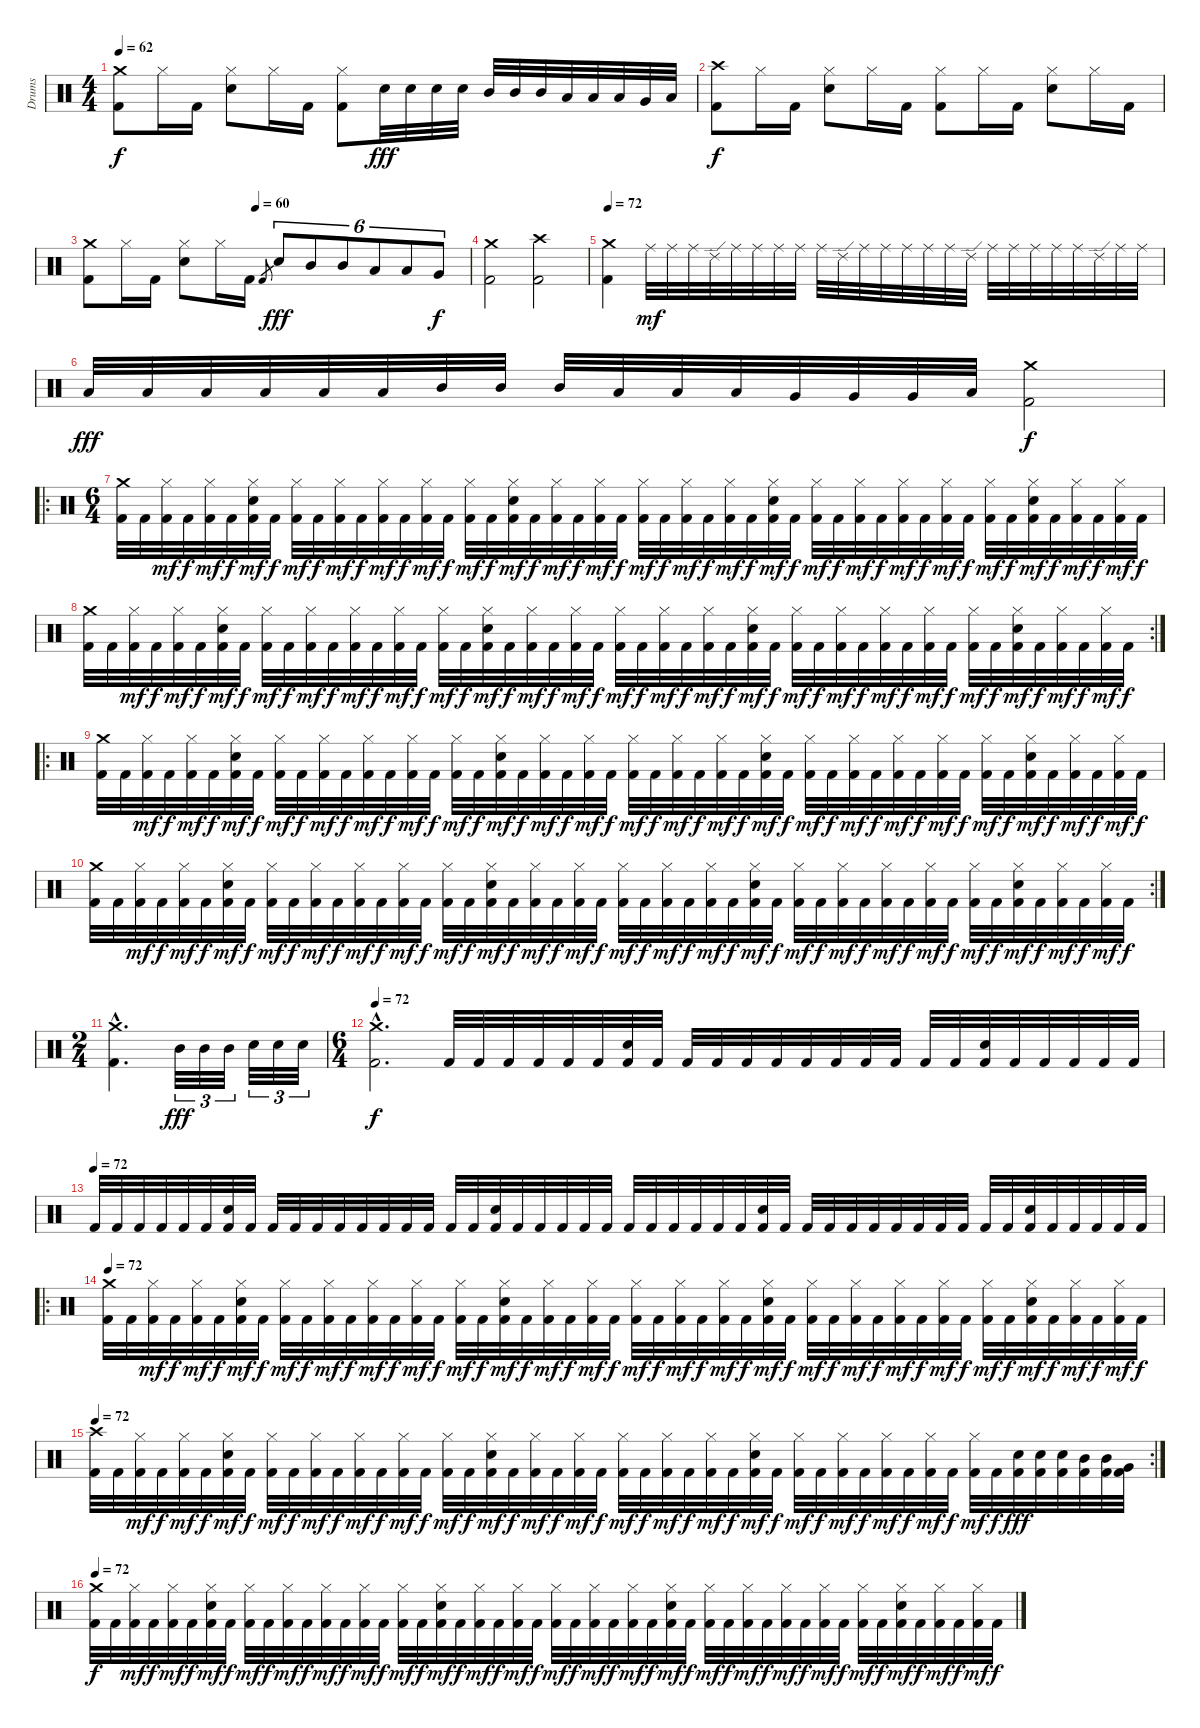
\track ("Drums" "Drums") {instrument percussion}
\staff {score}
\articulation defaults
\ts (4 4)
\tempo 62
\clef neutral
\ks c
("Crash medium (hit)" "Kick (hit) 2").8{dy f} "Hi-Hat (closed)".16 "Kick (hit) 2".16 ("Hi-Hat (closed)" "Electric Snare (hit)").8 "Hi-Hat (closed)".16 "Kick (hit) 2".16 ("Hi-Hat (closed)" "Kick (hit) 2").8 "Electric Snare (hit)".32{dy fff} "Electric Snare (hit)".32 "Electric Snare (hit)".32 "Electric Snare (hit)".32 "Mid Tom (hit)".32 "Mid Tom (hit)".32 "Mid Tom (hit)".32 "Low Tom (hit)".32 "Low Tom (hit)".32 "Low Tom (hit)".32 "Very Low Tom (hit)".32 "Low Floor Tom (hit)".32 |
("Crash high (hit)" "Kick (hit) 2").8{dy f} "Hi-Hat (closed)".16 "Kick (hit) 2".16 ("Hi-Hat (closed)" "Electric Snare (hit)").8 "Hi-Hat (closed)".16 "Kick (hit) 2".16 ("Hi-Hat (closed)" "Kick (hit) 2").8 "Hi-Hat (closed)".16 "Kick (hit) 2".16 ("Hi-Hat (closed)" "Electric Snare (hit)").8 "Hi-Hat (closed)".16 "Kick (hit) 2".16 |
\tempo (60 0.4375)
("Crash medium (hit)" "Kick (hit) 2").8 "Hi-Hat (closed)".16 "Kick (hit) 2".16 ("Hi-Hat (closed)" "Electric Snare (hit)").8 "Hi-Hat (closed)".16 "Kick (hit) 2".16 "Kick (hit) 2".8{gr} "Electric Snare (hit)".8{tu (6 4) dy fff} "Mid Tom (hit)".8{tu (6 4)} "Mid Tom (hit)".8{tu (6 4)} "Low Tom (hit)".8{tu (6 4)} "Low Tom (hit)".8{tu (6 4)} "Very Low Tom (hit)".8{tu (6 4) dy f} |
("Crash medium (hit)" "Kick (hit) 2").2 ("Crash high (hit)" "Kick (hit) 2").2 |
\tempo 72
("Crash medium (hit)" "Kick (hit) 2").4 "Ride (middle)".32{dy mf} "Ride (middle)".32 "Ride (middle)".32 "Ride (edge) 2".32 "Ride (middle)".32 "Ride (middle)".32 "Ride (middle)".32 "Ride (middle)".32 "Ride (middle)".32 "Ride (edge) 2".32 "Ride (middle)".32 "Ride (middle)".32 "Ride (middle)".32 "Ride (middle)".32 "Ride (middle)".32 "Ride (edge) 2".32 "Ride (middle)".32 "Ride (middle)".32 "Ride (middle)".32 "Ride (middle)".32 "Ride (middle)".32 "Ride (edge) 2".32 "Ride (middle)".32 "Ride (middle)".32 |
"Low Tom (hit)".32{dy fff} "Low Tom (hit)".32 "Low Floor Tom (hit)".32 "Low Tom (hit)".32 "Low Tom (hit)".32 "Low Floor Tom (hit)".32 "Mid Tom (hit)".32 "Mid Tom (hit)".32 "Mid Tom (hit)".32 "Low Tom (hit)".32 "Low Tom (hit)".32 "Low Tom (hit)".32 "Very Low Tom (hit)".32 "Very Low Tom (hit)".32 "Very Low Tom (hit)".32 "Low Floor Tom (hit)".32 ("Crash medium (hit)" "Kick (hit) 2").2{dy f} |
\ro
\ts (6 4)
("Crash medium (hit)" "Kick (hit) 2").32 "Kick (hit) 2".32 ("Hi-Hat (closed)" "Kick (hit) 2").32{dy mf} "Kick (hit) 2".32{dy f} ("Hi-Hat (closed)" "Kick (hit) 2").32{dy mf} "Kick (hit) 2".32{dy f} ("Hi-Hat (closed)" "Electric Snare (hit)" "Kick (hit) 2").32{dy mf} "Kick (hit) 2".32{dy f} ("Hi-Hat (closed)" "Kick (hit) 2").32{dy mf} "Kick (hit) 2".32{dy f} ("Hi-Hat (closed)" "Kick (hit) 2").32{dy mf} "Kick (hit) 2".32{dy f} ("Hi-Hat (closed)" "Kick (hit) 2").32{dy mf} "Kick (hit) 2".32{dy f} ("Hi-Hat (closed)" "Kick (hit) 2").32{dy mf} "Kick (hit) 2".32{dy f} ("Hi-Hat (closed)" "Kick (hit) 2").32{dy mf} "Kick (hit) 2".32{dy f} ("Hi-Hat (closed)" "Electric Snare (hit)" "Kick (hit) 2").32{dy mf} "Kick (hit) 2".32{dy f} ("Hi-Hat (closed)" "Kick (hit) 2").32{dy mf} "Kick (hit) 2".32{dy f} ("Hi-Hat (closed)" "Kick (hit) 2").32{dy mf} "Kick (hit) 2".32{dy f} ("Hi-Hat (closed)" "Kick (hit) 2").32{dy mf} "Kick (hit) 2".32{dy f} ("Hi-Hat (closed)" "Kick (hit) 2").32{dy mf} "Kick (hit) 2".32{dy f} ("Hi-Hat (closed)" "Kick (hit) 2").32{dy mf} "Kick (hit) 2".32{dy f} ("Hi-Hat (closed)" "Electric Snare (hit)" "Kick (hit) 2").32{dy mf} "Kick (hit) 2".32{dy f} ("Hi-Hat (closed)" "Kick (hit) 2").32{dy mf} "Kick (hit) 2".32{dy f} ("Hi-Hat (closed)" "Kick (hit) 2").32{dy mf} "Kick (hit) 2".32{dy f} ("Hi-Hat (closed)" "Kick (hit) 2").32{dy mf} "Kick (hit) 2".32{dy f} ("Hi-Hat (closed)" "Kick (hit) 2").32{dy mf} "Kick (hit) 2".32{dy f} ("Hi-Hat (closed)" "Kick (hit) 2").32{dy mf} "Kick (hit) 2".32{dy f} ("Hi-Hat (closed)" "Electric Snare (hit)" "Kick (hit) 2").32{dy mf} "Kick (hit) 2".32{dy f} ("Hi-Hat (closed)" "Kick (hit) 2").32{dy mf} "Kick (hit) 2".32{dy f} ("Hi-Hat (closed)" "Kick (hit) 2").32{dy mf} "Kick (hit) 2".32{dy f} |
\rc 2
("Crash medium (hit)" "Kick (hit) 2").32 "Kick (hit) 2".32 ("Hi-Hat (closed)" "Kick (hit) 2").32{dy mf} "Kick (hit) 2".32{dy f} ("Hi-Hat (closed)" "Kick (hit) 2").32{dy mf} "Kick (hit) 2".32{dy f} ("Hi-Hat (closed)" "Electric Snare (hit)" "Kick (hit) 2").32{dy mf} "Kick (hit) 2".32{dy f} ("Hi-Hat (closed)" "Kick (hit) 2").32{dy mf} "Kick (hit) 2".32{dy f} ("Hi-Hat (closed)" "Kick (hit) 2").32{dy mf} "Kick (hit) 2".32{dy f} ("Hi-Hat (closed)" "Kick (hit) 2").32{dy mf} "Kick (hit) 2".32{dy f} ("Hi-Hat (closed)" "Kick (hit) 2").32{dy mf} "Kick (hit) 2".32{dy f} ("Hi-Hat (closed)" "Kick (hit) 2").32{dy mf} "Kick (hit) 2".32{dy f} ("Hi-Hat (closed)" "Electric Snare (hit)" "Kick (hit) 2").32{dy mf} "Kick (hit) 2".32{dy f} ("Hi-Hat (closed)" "Kick (hit) 2").32{dy mf} "Kick (hit) 2".32{dy f} ("Hi-Hat (closed)" "Kick (hit) 2").32{dy mf} "Kick (hit) 2".32{dy f} ("Hi-Hat (closed)" "Kick (hit) 2").32{dy mf} "Kick (hit) 2".32{dy f} ("Hi-Hat (closed)" "Kick (hit) 2").32{dy mf} "Kick (hit) 2".32{dy f} ("Hi-Hat (closed)" "Kick (hit) 2").32{dy mf} "Kick (hit) 2".32{dy f} ("Hi-Hat (closed)" "Electric Snare (hit)" "Kick (hit) 2").32{dy mf} "Kick (hit) 2".32{dy f} ("Hi-Hat (closed)" "Kick (hit) 2").32{dy mf} "Kick (hit) 2".32{dy f} ("Hi-Hat (closed)" "Kick (hit) 2").32{dy mf} "Kick (hit) 2".32{dy f} ("Hi-Hat (closed)" "Kick (hit) 2").32{dy mf} "Kick (hit) 2".32{dy f} ("Hi-Hat (closed)" "Kick (hit) 2").32{dy mf} "Kick (hit) 2".32{dy f} ("Hi-Hat (closed)" "Kick (hit) 2").32{dy mf} "Kick (hit) 2".32{dy f} ("Hi-Hat (closed)" "Electric Snare (hit)" "Kick (hit) 2").32{dy mf} "Kick (hit) 2".32{dy f} ("Hi-Hat (closed)" "Kick (hit) 2").32{dy mf} "Kick (hit) 2".32{dy f} ("Hi-Hat (closed)" "Kick (hit) 2").32{dy mf} "Kick (hit) 2".32{dy f} |
\ro
("Crash medium (hit)" "Kick (hit) 2").32 "Kick (hit) 2".32 ("Hi-Hat (closed)" "Kick (hit) 2").32{dy mf} "Kick (hit) 2".32{dy f} ("Hi-Hat (closed)" "Kick (hit) 2").32{dy mf} "Kick (hit) 2".32{dy f} ("Hi-Hat (closed)" "Electric Snare (hit)" "Kick (hit) 2").32{dy mf} "Kick (hit) 2".32{dy f} ("Hi-Hat (closed)" "Kick (hit) 2").32{dy mf} "Kick (hit) 2".32{dy f} ("Hi-Hat (closed)" "Kick (hit) 2").32{dy mf} "Kick (hit) 2".32{dy f} ("Hi-Hat (closed)" "Kick (hit) 2").32{dy mf} "Kick (hit) 2".32{dy f} ("Hi-Hat (closed)" "Kick (hit) 2").32{dy mf} "Kick (hit) 2".32{dy f} ("Hi-Hat (closed)" "Kick (hit) 2").32{dy mf} "Kick (hit) 2".32{dy f} ("Hi-Hat (closed)" "Electric Snare (hit)" "Kick (hit) 2").32{dy mf} "Kick (hit) 2".32{dy f} ("Hi-Hat (closed)" "Kick (hit) 2").32{dy mf} "Kick (hit) 2".32{dy f} ("Hi-Hat (closed)" "Kick (hit) 2").32{dy mf} "Kick (hit) 2".32{dy f} ("Hi-Hat (closed)" "Kick (hit) 2").32{dy mf} "Kick (hit) 2".32{dy f} ("Hi-Hat (closed)" "Kick (hit) 2").32{dy mf} "Kick (hit) 2".32{dy f} ("Hi-Hat (closed)" "Kick (hit) 2").32{dy mf} "Kick (hit) 2".32{dy f} ("Hi-Hat (closed)" "Electric Snare (hit)" "Kick (hit) 2").32{dy mf} "Kick (hit) 2".32{dy f} ("Hi-Hat (closed)" "Kick (hit) 2").32{dy mf} "Kick (hit) 2".32{dy f} ("Hi-Hat (closed)" "Kick (hit) 2").32{dy mf} "Kick (hit) 2".32{dy f} ("Hi-Hat (closed)" "Kick (hit) 2").32{dy mf} "Kick (hit) 2".32{dy f} ("Hi-Hat (closed)" "Kick (hit) 2").32{dy mf} "Kick (hit) 2".32{dy f} ("Hi-Hat (closed)" "Kick (hit) 2").32{dy mf} "Kick (hit) 2".32{dy f} ("Hi-Hat (closed)" "Electric Snare (hit)" "Kick (hit) 2").32{dy mf} "Kick (hit) 2".32{dy f} ("Hi-Hat (closed)" "Kick (hit) 2").32{dy mf} "Kick (hit) 2".32{dy f} ("Hi-Hat (closed)" "Kick (hit) 2").32{dy mf} "Kick (hit) 2".32{dy f} |
\rc 2
("Crash medium (hit)" "Kick (hit) 2").32 "Kick (hit) 2".32 ("Hi-Hat (closed)" "Kick (hit) 2").32{dy mf} "Kick (hit) 2".32{dy f} ("Hi-Hat (closed)" "Kick (hit) 2").32{dy mf} "Kick (hit) 2".32{dy f} ("Hi-Hat (closed)" "Electric Snare (hit)" "Kick (hit) 2").32{dy mf} "Kick (hit) 2".32{dy f} ("Hi-Hat (closed)" "Kick (hit) 2").32{dy mf} "Kick (hit) 2".32{dy f} ("Hi-Hat (closed)" "Kick (hit) 2").32{dy mf} "Kick (hit) 2".32{dy f} ("Hi-Hat (closed)" "Kick (hit) 2").32{dy mf} "Kick (hit) 2".32{dy f} ("Hi-Hat (closed)" "Kick (hit) 2").32{dy mf} "Kick (hit) 2".32{dy f} ("Hi-Hat (closed)" "Kick (hit) 2").32{dy mf} "Kick (hit) 2".32{dy f} ("Hi-Hat (closed)" "Electric Snare (hit)" "Kick (hit) 2").32{dy mf} "Kick (hit) 2".32{dy f} ("Hi-Hat (closed)" "Kick (hit) 2").32{dy mf} "Kick (hit) 2".32{dy f} ("Hi-Hat (closed)" "Kick (hit) 2").32{dy mf} "Kick (hit) 2".32{dy f} ("Hi-Hat (closed)" "Kick (hit) 2").32{dy mf} "Kick (hit) 2".32{dy f} ("Hi-Hat (closed)" "Kick (hit) 2").32{dy mf} "Kick (hit) 2".32{dy f} ("Hi-Hat (closed)" "Kick (hit) 2").32{dy mf} "Kick (hit) 2".32{dy f} ("Hi-Hat (closed)" "Electric Snare (hit)" "Kick (hit) 2").32{dy mf} "Kick (hit) 2".32{dy f} ("Hi-Hat (closed)" "Kick (hit) 2").32{dy mf} "Kick (hit) 2".32{dy f} ("Hi-Hat (closed)" "Kick (hit) 2").32{dy mf} "Kick (hit) 2".32{dy f} ("Hi-Hat (closed)" "Kick (hit) 2").32{dy mf} "Kick (hit) 2".32{dy f} ("Hi-Hat (closed)" "Kick (hit) 2").32{dy mf} "Kick (hit) 2".32{dy f} ("Hi-Hat (closed)" "Kick (hit) 2").32{dy mf} "Kick (hit) 2".32{dy f} ("Hi-Hat (closed)" "Electric Snare (hit)" "Kick (hit) 2").32{dy mf} "Kick (hit) 2".32{dy f} ("Hi-Hat (closed)" "Kick (hit) 2").32{dy mf} "Kick (hit) 2".32{dy f} ("Hi-Hat (closed)" "Kick (hit) 2").32{dy mf} "Kick (hit) 2".32{dy f} |
\ts (2 4)
("Crash medium (hit)"{hac} "Kick (hit) 2"{hac}).4{d} "Mid Tom (hit)".32{tu (3 2) dy fff} "Mid Tom (hit)".32{tu (3 2)} "Mid Tom (hit)".32{tu (3 2)} "Electric Snare (hit)".32{tu (3 2)} "Electric Snare (hit)".32{tu (3 2)} "Electric Snare (hit)".32{tu (3 2)} |
\ts (6 4)
\tempo 72
("Crash medium (hit)"{hac} "Kick (hit) 2"{hac}).2{d dy f} "Kick (hit) 2".32 "Kick (hit) 2".32 "Kick (hit) 2".32 "Kick (hit) 2".32 "Kick (hit) 2".32 "Kick (hit) 2".32 ("Electric Snare (hit)" "Kick (hit) 2").32 "Kick (hit) 2".32 "Kick (hit) 2".32 "Kick (hit) 2".32 "Kick (hit) 2".32 "Kick (hit) 2".32 "Kick (hit) 2".32 "Kick (hit) 2".32 "Kick (hit) 2".32 "Kick (hit) 2".32 "Kick (hit) 2".32 "Kick (hit) 2".32 ("Electric Snare (hit)" "Kick (hit) 2").32 "Kick (hit) 2".32 "Kick (hit) 2".32 "Kick (hit) 2".32 "Kick (hit) 2".32 "Kick (hit) 2".32 |
\tempo (72)
"Kick (hit) 2".32 "Kick (hit) 2".32 "Kick (hit) 2".32 "Kick (hit) 2".32 "Kick (hit) 2".32 "Kick (hit) 2".32 ("Electric Snare (hit)" "Kick (hit) 2").32 "Kick (hit) 2".32 "Kick (hit) 2".32 "Kick (hit) 2".32 "Kick (hit) 2".32 "Kick (hit) 2".32 "Kick (hit) 2".32 "Kick (hit) 2".32 "Kick (hit) 2".32 "Kick (hit) 2".32 "Kick (hit) 2".32 "Kick (hit) 2".32 ("Electric Snare (hit)" "Kick (hit) 2").32 "Kick (hit) 2".32 "Kick (hit) 2".32 "Kick (hit) 2".32 "Kick (hit) 2".32 "Kick (hit) 2".32 "Kick (hit) 2".32 "Kick (hit) 2".32 "Kick (hit) 2".32 "Kick (hit) 2".32 "Kick (hit) 2".32 "Kick (hit) 2".32 ("Electric Snare (hit)" "Kick (hit) 2").32 "Kick (hit) 2".32 "Kick (hit) 2".32 "Kick (hit) 2".32 "Kick (hit) 2".32 "Kick (hit) 2".32 "Kick (hit) 2".32 "Kick (hit) 2".32 "Kick (hit) 2".32 "Kick (hit) 2".32 "Kick (hit) 2".32 "Kick (hit) 2".32 ("Electric Snare (hit)" "Kick (hit) 2").32 "Kick (hit) 2".32 "Kick (hit) 2".32 "Kick (hit) 2".32 "Kick (hit) 2".32 "Kick (hit) 2".32 |
\ro
\tempo 72
("Crash medium (hit)" "Kick (hit) 2").32 "Kick (hit) 2".32 ("Hi-Hat (closed)" "Kick (hit) 2").32{dy mf} "Kick (hit) 2".32{dy f} ("Hi-Hat (closed)" "Kick (hit) 2").32{dy mf} "Kick (hit) 2".32{dy f} ("Hi-Hat (closed)" "Electric Snare (hit)" "Kick (hit) 2").32{dy mf} "Kick (hit) 2".32{dy f} ("Hi-Hat (closed)" "Kick (hit) 2").32{dy mf} "Kick (hit) 2".32{dy f} ("Hi-Hat (closed)" "Kick (hit) 2").32{dy mf} "Kick (hit) 2".32{dy f} ("Hi-Hat (closed)" "Kick (hit) 2").32{dy mf} "Kick (hit) 2".32{dy f} ("Hi-Hat (closed)" "Kick (hit) 2").32{dy mf} "Kick (hit) 2".32{dy f} ("Hi-Hat (closed)" "Kick (hit) 2").32{dy mf} "Kick (hit) 2".32{dy f} ("Hi-Hat (closed)" "Electric Snare (hit)" "Kick (hit) 2").32{dy mf} "Kick (hit) 2".32{dy f} ("Hi-Hat (closed)" "Kick (hit) 2").32{dy mf} "Kick (hit) 2".32{dy f} ("Hi-Hat (closed)" "Kick (hit) 2").32{dy mf} "Kick (hit) 2".32{dy f} ("Hi-Hat (closed)" "Kick (hit) 2").32{dy mf} "Kick (hit) 2".32{dy f} ("Hi-Hat (closed)" "Kick (hit) 2").32{dy mf} "Kick (hit) 2".32{dy f} ("Hi-Hat (closed)" "Kick (hit) 2").32{dy mf} "Kick (hit) 2".32{dy f} ("Hi-Hat (closed)" "Electric Snare (hit)" "Kick (hit) 2").32{dy mf} "Kick (hit) 2".32{dy f} ("Hi-Hat (closed)" "Kick (hit) 2").32{dy mf} "Kick (hit) 2".32{dy f} ("Hi-Hat (closed)" "Kick (hit) 2").32{dy mf} "Kick (hit) 2".32{dy f} ("Hi-Hat (closed)" "Kick (hit) 2").32{dy mf} "Kick (hit) 2".32{dy f} ("Hi-Hat (closed)" "Kick (hit) 2").32{dy mf} "Kick (hit) 2".32{dy f} ("Hi-Hat (closed)" "Kick (hit) 2").32{dy mf} "Kick (hit) 2".32{dy f} ("Hi-Hat (closed)" "Electric Snare (hit)" "Kick (hit) 2").32{dy mf} "Kick (hit) 2".32{dy f} ("Hi-Hat (closed)" "Kick (hit) 2").32{dy mf} "Kick (hit) 2".32{dy f} ("Hi-Hat (closed)" "Kick (hit) 2").32{dy mf} "Kick (hit) 2".32{dy f} |
\rc 2
\tempo 72
("Crash high (hit)" "Kick (hit) 2").32 "Kick (hit) 2".32 ("Hi-Hat (closed)" "Kick (hit) 2").32{dy mf} "Kick (hit) 2".32{dy f} ("Hi-Hat (closed)" "Kick (hit) 2").32{dy mf} "Kick (hit) 2".32{dy f} ("Hi-Hat (closed)" "Electric Snare (hit)" "Kick (hit) 2").32{dy mf} "Kick (hit) 2".32{dy f} ("Hi-Hat (closed)" "Kick (hit) 2").32{dy mf} "Kick (hit) 2".32{dy f} ("Hi-Hat (closed)" "Kick (hit) 2").32{dy mf} "Kick (hit) 2".32{dy f} ("Hi-Hat (closed)" "Kick (hit) 2").32{dy mf} "Kick (hit) 2".32{dy f} ("Hi-Hat (closed)" "Kick (hit) 2").32{dy mf} "Kick (hit) 2".32{dy f} ("Hi-Hat (closed)" "Kick (hit) 2").32{dy mf} "Kick (hit) 2".32{dy f} ("Hi-Hat (closed)" "Electric Snare (hit)" "Kick (hit) 2").32{dy mf} "Kick (hit) 2".32{dy f} ("Hi-Hat (closed)" "Kick (hit) 2").32{dy mf} "Kick (hit) 2".32{dy f} ("Hi-Hat (closed)" "Kick (hit) 2").32{dy mf} "Kick (hit) 2".32{dy f} ("Hi-Hat (closed)" "Kick (hit) 2").32{dy mf} "Kick (hit) 2".32{dy f} ("Hi-Hat (closed)" "Kick (hit) 2").32{dy mf} "Kick (hit) 2".32{dy f} ("Hi-Hat (closed)" "Kick (hit) 2").32{dy mf} "Kick (hit) 2".32{dy f} ("Hi-Hat (closed)" "Electric Snare (hit)" "Kick (hit) 2").32{dy mf} "Kick (hit) 2".32{dy f} ("Hi-Hat (closed)" "Kick (hit) 2").32{dy mf} "Kick (hit) 2".32{dy f} ("Hi-Hat (closed)" "Kick (hit) 2").32{dy mf} "Kick (hit) 2".32{dy f} ("Hi-Hat (closed)" "Kick (hit) 2").32{dy mf} "Kick (hit) 2".32{dy f} ("Hi-Hat (closed)" "Kick (hit) 2").32{dy mf} "Kick (hit) 2".32{dy f} ("Hi-Hat (closed)" "Kick (hit) 2").32{dy mf} "Kick (hit) 2".32{dy f} ("Electric Snare (hit)" "Kick (hit) 2").32{dy fff} ("Electric Snare (hit)" "Kick (hit) 2").32 ("Electric Snare (hit)" "Kick (hit) 2").32 ("Mid Tom (hit)" "Kick (hit) 2").32 ("Mid Tom (hit)" "Kick (hit) 2").32 ("Very Low Tom (hit)" "Kick (hit) 2").32 |
\tempo 72
("Crash medium (hit)" "Kick (hit) 2").32{dy f} "Kick (hit) 2".32 ("Hi-Hat (closed)" "Kick (hit) 2").32{dy mf} "Kick (hit) 2".32{dy f} ("Hi-Hat (closed)" "Kick (hit) 2").32{dy mf} "Kick (hit) 2".32{dy f} ("Hi-Hat (closed)" "Electric Snare (hit)" "Kick (hit) 2").32{dy mf} "Kick (hit) 2".32{dy f} ("Hi-Hat (closed)" "Kick (hit) 2").32{dy mf} "Kick (hit) 2".32{dy f} ("Hi-Hat (closed)" "Kick (hit) 2").32{dy mf} "Kick (hit) 2".32{dy f} ("Hi-Hat (closed)" "Kick (hit) 2").32{dy mf} "Kick (hit) 2".32{dy f} ("Hi-Hat (closed)" "Kick (hit) 2").32{dy mf} "Kick (hit) 2".32{dy f} ("Hi-Hat (closed)" "Kick (hit) 2").32{dy mf} "Kick (hit) 2".32{dy f} ("Hi-Hat (closed)" "Electric Snare (hit)" "Kick (hit) 2").32{dy mf} "Kick (hit) 2".32{dy f} ("Hi-Hat (closed)" "Kick (hit) 2").32{dy mf} "Kick (hit) 2".32{dy f} ("Hi-Hat (closed)" "Kick (hit) 2").32{dy mf} "Kick (hit) 2".32{dy f} ("Hi-Hat (closed)" "Kick (hit) 2").32{dy mf} "Kick (hit) 2".32{dy f} ("Hi-Hat (closed)" "Kick (hit) 2").32{dy mf} "Kick (hit) 2".32{dy f} ("Hi-Hat (closed)" "Kick (hit) 2").32{dy mf} "Kick (hit) 2".32{dy f} ("Hi-Hat (closed)" "Electric Snare (hit)" "Kick (hit) 2").32{dy mf} "Kick (hit) 2".32{dy f} ("Hi-Hat (closed)" "Kick (hit) 2").32{dy mf} "Kick (hit) 2".32{dy f} ("Hi-Hat (closed)" "Kick (hit) 2").32{dy mf} "Kick (hit) 2".32{dy f} ("Hi-Hat (closed)" "Kick (hit) 2").32{dy mf} "Kick (hit) 2".32{dy f} ("Hi-Hat (closed)" "Kick (hit) 2").32{dy mf} "Kick (hit) 2".32{dy f} ("Hi-Hat (closed)" "Kick (hit) 2").32{dy mf} "Kick (hit) 2".32{dy f} ("Hi-Hat (closed)" "Electric Snare (hit)" "Kick (hit) 2").32{dy mf} "Kick (hit) 2".32{dy f} ("Hi-Hat (closed)" "Kick (hit) 2").32{dy mf} "Kick (hit) 2".32{dy f} ("Hi-Hat (closed)" "Kick (hit) 2").32{dy mf} "Kick (hit) 2".32{dy f}
